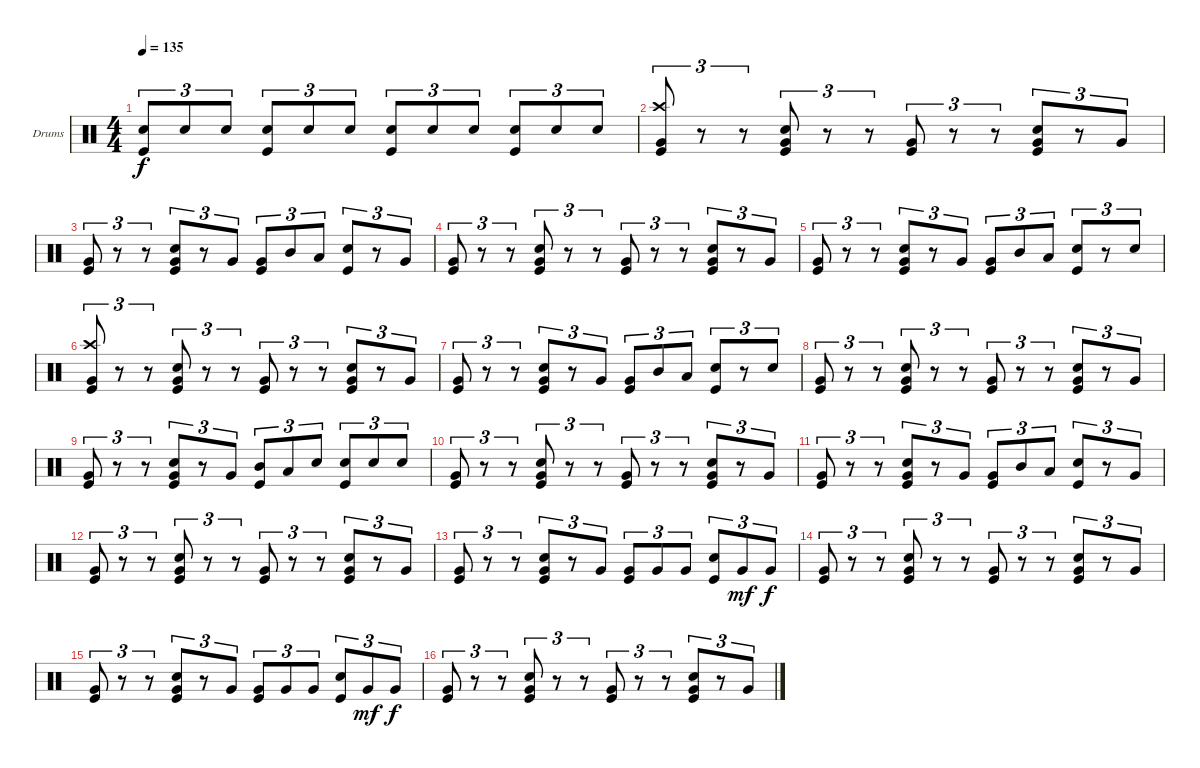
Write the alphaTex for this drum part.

\bracketExtendMode groupsimilarinstruments
\firstSystemTrackNameOrientation horizontal
\otherSystemsTrackNameOrientation horizontal
\track ("Drumkit (Christoph)" "Drums") {instrument percussion}
\staff {score}
\articulation defaults
\ts (4 4)
\tempo 135
\clef neutral
\ks c
("Snare (hit) 2" "Kick (hit)").8{tu (3 2) dy f} "Snare (hit) 2".8{tu (3 2)} "Snare (hit) 2".8{tu (3 2)} ("Snare (hit) 2" "Kick (hit)").8{tu (3 2)} "Snare (hit) 2".8{tu (3 2)} "Snare (hit) 2".8{tu (3 2)} ("Snare (hit) 2" "Kick (hit)").8{tu (3 2)} "Snare (hit) 2".8{tu (3 2)} "Snare (hit) 2".8{tu (3 2)} ("Snare (hit) 2" "Kick (hit)").8{tu (3 2)} "Snare (hit) 2".8{tu (3 2)} "Snare (hit) 2".8{tu (3 2)} |
("Crash high (hit)" "Very Low Tom (hit)" "Kick (hit)").8{tu (3 2)} r.8{tu (3 2)} r.8{tu (3 2)} ("Snare (hit) 2" "Very Low Tom (hit)" "Kick (hit)").8{tu (3 2)} r.8{tu (3 2)} r.8{tu (3 2)} ("Very Low Tom (hit)" "Kick (hit)").8{tu (3 2)} r.8{tu (3 2)} r.8{tu (3 2)} ("Snare (hit) 2" "Very Low Tom (hit)" "Kick (hit)").8{tu (3 2)} r.8{tu (3 2)} "Very Low Tom (hit)".8{tu (3 2)} |
("Very Low Tom (hit)" "Kick (hit)").8{tu (3 2)} r.8{tu (3 2)} r.8{tu (3 2)} ("Snare (hit) 2" "Very Low Tom (hit)" "Kick (hit)").8{tu (3 2)} r.8{tu (3 2)} "Very Low Tom (hit)".8{tu (3 2)} ("Very Low Tom (hit)" "Kick (hit)").8{tu (3 2)} "Mid Tom (hit)".8{tu (3 2)} "Low Tom (hit)".8{tu (3 2)} ("Snare (hit) 2" "Kick (hit)").8{tu (3 2)} r.8{tu (3 2)} "Very Low Tom (hit)".8{tu (3 2)} |
("Very Low Tom (hit)" "Kick (hit)").8{tu (3 2)} r.8{tu (3 2)} r.8{tu (3 2)} ("Snare (hit) 2" "Very Low Tom (hit)" "Kick (hit)").8{tu (3 2)} r.8{tu (3 2)} r.8{tu (3 2)} ("Very Low Tom (hit)" "Kick (hit)").8{tu (3 2)} r.8{tu (3 2)} r.8{tu (3 2)} ("Snare (hit) 2" "Very Low Tom (hit)" "Kick (hit)").8{tu (3 2)} r.8{tu (3 2)} "Very Low Tom (hit)".8{tu (3 2)} |
("Very Low Tom (hit)" "Kick (hit)").8{tu (3 2)} r.8{tu (3 2)} r.8{tu (3 2)} ("Snare (hit) 2" "Very Low Tom (hit)" "Kick (hit)").8{tu (3 2)} r.8{tu (3 2)} "Very Low Tom (hit)".8{tu (3 2)} ("Very Low Tom (hit)" "Kick (hit)").8{tu (3 2)} "Mid Tom (hit)".8{tu (3 2)} "Low Tom (hit)".8{tu (3 2)} ("Snare (hit) 2" "Kick (hit)").8{tu (3 2)} r.8{tu (3 2)} "Snare (hit) 2".8{tu (3 2)} |
("Crash high (hit)" "Very Low Tom (hit)" "Kick (hit)").8{tu (3 2)} r.8{tu (3 2)} r.8{tu (3 2)} ("Snare (hit) 2" "Very Low Tom (hit)" "Kick (hit)").8{tu (3 2)} r.8{tu (3 2)} r.8{tu (3 2)} ("Very Low Tom (hit)" "Kick (hit)").8{tu (3 2)} r.8{tu (3 2)} r.8{tu (3 2)} ("Snare (hit) 2" "Very Low Tom (hit)" "Kick (hit)").8{tu (3 2)} r.8{tu (3 2)} "Very Low Tom (hit)".8{tu (3 2)} |
("Very Low Tom (hit)" "Kick (hit)").8{tu (3 2)} r.8{tu (3 2)} r.8{tu (3 2)} ("Snare (hit) 2" "Very Low Tom (hit)" "Kick (hit)").8{tu (3 2)} r.8{tu (3 2)} "Very Low Tom (hit)".8{tu (3 2)} ("Very Low Tom (hit)" "Kick (hit)").8{tu (3 2)} "Mid Tom (hit)".8{tu (3 2)} "Low Tom (hit)".8{tu (3 2)} ("Snare (hit) 2" "Kick (hit)").8{tu (3 2)} r.8{tu (3 2)} "Snare (hit) 2".8{tu (3 2)} |
("Very Low Tom (hit)" "Kick (hit)").8{tu (3 2)} r.8{tu (3 2)} r.8{tu (3 2)} ("Snare (hit) 2" "Very Low Tom (hit)" "Kick (hit)").8{tu (3 2)} r.8{tu (3 2)} r.8{tu (3 2)} ("Very Low Tom (hit)" "Kick (hit)").8{tu (3 2)} r.8{tu (3 2)} r.8{tu (3 2)} ("Snare (hit) 2" "Very Low Tom (hit)" "Kick (hit)").8{tu (3 2)} r.8{tu (3 2)} "Very Low Tom (hit)".8{tu (3 2)} |
("Very Low Tom (hit)" "Kick (hit)").8{tu (3 2)} r.8{tu (3 2)} r.8{tu (3 2)} ("Snare (hit) 2" "Very Low Tom (hit)" "Kick (hit)").8{tu (3 2)} r.8{tu (3 2)} "Very Low Tom (hit)".8{tu (3 2)} ("Mid Tom (hit)" "Kick (hit)").8{tu (3 2)} "Low Tom (hit)".8{tu (3 2)} "Snare (hit) 2".8{tu (3 2)} ("Snare (hit) 2" "Kick (hit)").8{tu (3 2)} "Snare (hit) 2".8{tu (3 2)} "Snare (hit) 2".8{tu (3 2)} |
("Very Low Tom (hit)" "Kick (hit)").8{tu (3 2)} r.8{tu (3 2)} r.8{tu (3 2)} ("Snare (hit) 2" "Very Low Tom (hit)" "Kick (hit)").8{tu (3 2)} r.8{tu (3 2)} r.8{tu (3 2)} ("Very Low Tom (hit)" "Kick (hit)").8{tu (3 2)} r.8{tu (3 2)} r.8{tu (3 2)} ("Snare (hit) 2" "Very Low Tom (hit)" "Kick (hit)").8{tu (3 2)} r.8{tu (3 2)} "Very Low Tom (hit)".8{tu (3 2)} |
("Very Low Tom (hit)" "Kick (hit)").8{tu (3 2)} r.8{tu (3 2)} r.8{tu (3 2)} ("Snare (hit) 2" "Very Low Tom (hit)" "Kick (hit)").8{tu (3 2)} r.8{tu (3 2)} "Very Low Tom (hit)".8{tu (3 2)} ("Very Low Tom (hit)" "Kick (hit)").8{tu (3 2)} "Mid Tom (hit)".8{tu (3 2)} "Low Tom (hit)".8{tu (3 2)} ("Snare (hit) 2" "Kick (hit)").8{tu (3 2)} r.8{tu (3 2)} "Very Low Tom (hit)".8{tu (3 2)} |
("Very Low Tom (hit)" "Kick (hit)").8{tu (3 2)} r.8{tu (3 2)} r.8{tu (3 2)} ("Snare (hit) 2" "Very Low Tom (hit)" "Kick (hit)").8{tu (3 2)} r.8{tu (3 2)} r.8{tu (3 2)} ("Very Low Tom (hit)" "Kick (hit)").8{tu (3 2)} r.8{tu (3 2)} r.8{tu (3 2)} ("Snare (hit) 2" "Very Low Tom (hit)" "Kick (hit)").8{tu (3 2)} r.8{tu (3 2)} "Very Low Tom (hit)".8{tu (3 2)} |
("Very Low Tom (hit)" "Kick (hit)").8{tu (3 2)} r.8{tu (3 2)} r.8{tu (3 2)} ("Snare (hit) 2" "Very Low Tom (hit)" "Kick (hit)").8{tu (3 2)} r.8{tu (3 2)} "Very Low Tom (hit)".8{tu (3 2)} ("Very Low Tom (hit)" "Kick (hit)").8{tu (3 2)} "Very Low Tom (hit)".8{tu (3 2)} "Very Low Tom (hit)".8{tu (3 2)} ("Snare (hit) 2" "Kick (hit)").8{tu (3 2)} "Very Low Tom (hit)".8{tu (3 2) dy mf} "Very Low Tom (hit)".8{tu (3 2) dy f} |
("Very Low Tom (hit)" "Kick (hit)").8{tu (3 2)} r.8{tu (3 2)} r.8{tu (3 2)} ("Snare (hit) 2" "Very Low Tom (hit)" "Kick (hit)").8{tu (3 2)} r.8{tu (3 2)} r.8{tu (3 2)} ("Very Low Tom (hit)" "Kick (hit)").8{tu (3 2)} r.8{tu (3 2)} r.8{tu (3 2)} ("Snare (hit) 2" "Very Low Tom (hit)" "Kick (hit)").8{tu (3 2)} r.8{tu (3 2)} "Very Low Tom (hit)".8{tu (3 2)} |
("Very Low Tom (hit)" "Kick (hit)").8{tu (3 2)} r.8{tu (3 2)} r.8{tu (3 2)} ("Snare (hit) 2" "Very Low Tom (hit)" "Kick (hit)").8{tu (3 2)} r.8{tu (3 2)} "Very Low Tom (hit)".8{tu (3 2)} ("Very Low Tom (hit)" "Kick (hit)").8{tu (3 2)} "Very Low Tom (hit)".8{tu (3 2)} "Very Low Tom (hit)".8{tu (3 2)} ("Snare (hit) 2" "Kick (hit)").8{tu (3 2)} "Very Low Tom (hit)".8{tu (3 2) dy mf} "Very Low Tom (hit)".8{tu (3 2) dy f} |
("Very Low Tom (hit)" "Kick (hit)").8{tu (3 2)} r.8{tu (3 2)} r.8{tu (3 2)} ("Snare (hit) 2" "Very Low Tom (hit)" "Kick (hit)").8{tu (3 2)} r.8{tu (3 2)} r.8{tu (3 2)} ("Very Low Tom (hit)" "Kick (hit)").8{tu (3 2)} r.8{tu (3 2)} r.8{tu (3 2)} ("Snare (hit) 2" "Very Low Tom (hit)" "Kick (hit)").8{tu (3 2)} r.8{tu (3 2)} "Very Low Tom (hit)".8{tu (3 2)}
